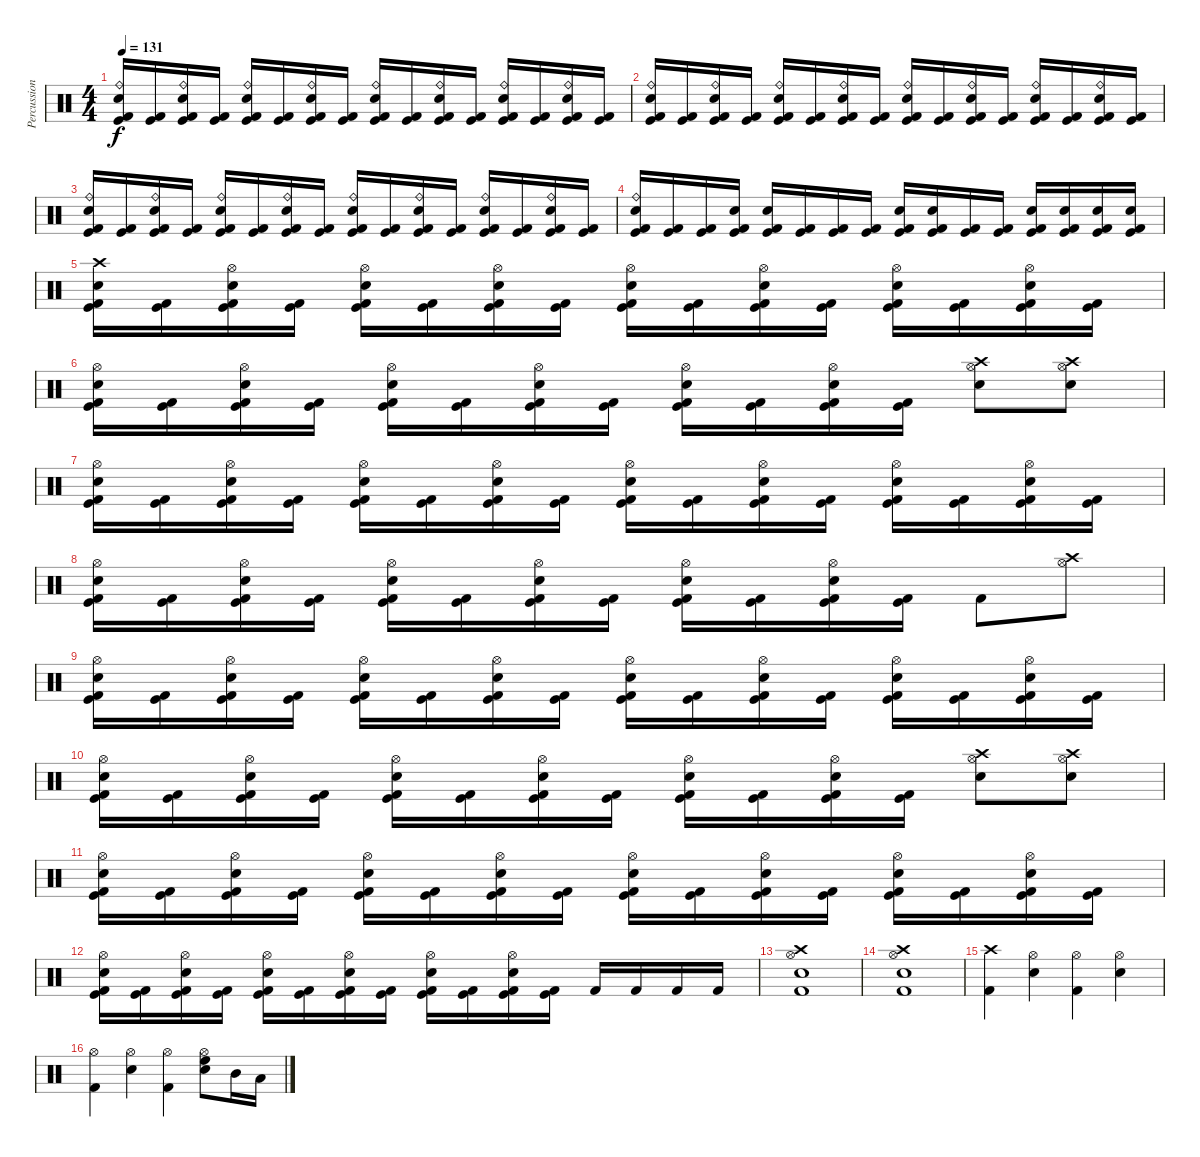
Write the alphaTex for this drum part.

\track ("Percussion" "Percussion") {instrument percussion}
\staff {score}
\articulation defaults
\ts (4 4)
\tempo 131
\clef neutral
\ks c
("Snare (hit) 2" "Ride (bell)" "Kick (hit)" "Kick (hit) 2").16{dy f} ("Kick (hit)" "Kick (hit) 2").16 ("Snare (hit) 2" "Ride (bell)" "Kick (hit)" "Kick (hit) 2").16 ("Kick (hit)" "Kick (hit) 2").16 ("Snare (hit) 2" "Ride (bell)" "Kick (hit)" "Kick (hit) 2").16 ("Kick (hit)" "Kick (hit) 2").16 ("Snare (hit) 2" "Ride (bell)" "Kick (hit)" "Kick (hit) 2").16 ("Kick (hit)" "Kick (hit) 2").16 ("Snare (hit) 2" "Ride (bell)" "Kick (hit)" "Kick (hit) 2").16 ("Kick (hit)" "Kick (hit) 2").16 ("Snare (hit) 2" "Ride (bell)" "Kick (hit)" "Kick (hit) 2").16 ("Kick (hit)" "Kick (hit) 2").16 ("Snare (hit) 2" "Ride (bell)" "Kick (hit)" "Kick (hit) 2").16 ("Kick (hit)" "Kick (hit) 2").16 ("Snare (hit) 2" "Ride (bell)" "Kick (hit)" "Kick (hit) 2").16 ("Kick (hit)" "Kick (hit) 2").16 |
("Snare (hit) 2" "Ride (bell)" "Kick (hit)" "Kick (hit) 2").16 ("Kick (hit)" "Kick (hit) 2").16 ("Snare (hit) 2" "Ride (bell)" "Kick (hit)" "Kick (hit) 2").16 ("Kick (hit)" "Kick (hit) 2").16 ("Snare (hit) 2" "Ride (bell)" "Kick (hit)" "Kick (hit) 2").16 ("Kick (hit)" "Kick (hit) 2").16 ("Snare (hit) 2" "Ride (bell)" "Kick (hit)" "Kick (hit) 2").16 ("Kick (hit)" "Kick (hit) 2").16 ("Snare (hit) 2" "Ride (bell)" "Kick (hit)" "Kick (hit) 2").16 ("Kick (hit)" "Kick (hit) 2").16 ("Snare (hit) 2" "Ride (bell)" "Kick (hit)" "Kick (hit) 2").16 ("Kick (hit)" "Kick (hit) 2").16 ("Snare (hit) 2" "Ride (bell)" "Kick (hit)" "Kick (hit) 2").16 ("Kick (hit)" "Kick (hit) 2").16 ("Snare (hit) 2" "Ride (bell)" "Kick (hit)" "Kick (hit) 2").16 ("Kick (hit)" "Kick (hit) 2").16 |
("Snare (hit) 2" "Ride (bell)" "Kick (hit)" "Kick (hit) 2").16 ("Kick (hit)" "Kick (hit) 2").16 ("Snare (hit) 2" "Ride (bell)" "Kick (hit)" "Kick (hit) 2").16 ("Kick (hit)" "Kick (hit) 2").16 ("Snare (hit) 2" "Ride (bell)" "Kick (hit)" "Kick (hit) 2").16 ("Kick (hit)" "Kick (hit) 2").16 ("Snare (hit) 2" "Ride (bell)" "Kick (hit)" "Kick (hit) 2").16 ("Kick (hit)" "Kick (hit) 2").16 ("Snare (hit) 2" "Ride (bell)" "Kick (hit)" "Kick (hit) 2").16 ("Kick (hit)" "Kick (hit) 2").16 ("Snare (hit) 2" "Ride (bell)" "Kick (hit)" "Kick (hit) 2").16 ("Kick (hit)" "Kick (hit) 2").16 ("Snare (hit) 2" "Ride (bell)" "Kick (hit)" "Kick (hit) 2").16 ("Kick (hit)" "Kick (hit) 2").16 ("Snare (hit) 2" "Ride (bell)" "Kick (hit)" "Kick (hit) 2").16 ("Kick (hit)" "Kick (hit) 2").16 |
("Snare (hit) 2" "Ride (bell)" "Kick (hit)" "Kick (hit) 2").16 ("Kick (hit)" "Kick (hit) 2").16 ("Kick (hit)" "Kick (hit) 2").16 ("Snare (hit) 2" "Kick (hit)" "Kick (hit) 2").16 ("Snare (hit) 2" "Kick (hit)" "Kick (hit) 2").16 ("Kick (hit)" "Kick (hit) 2").16 ("Kick (hit)" "Kick (hit) 2").16 ("Kick (hit)" "Kick (hit) 2").16 ("Snare (hit) 2" "Kick (hit)" "Kick (hit) 2").16 ("Snare (hit) 2" "Kick (hit)" "Kick (hit) 2").16 ("Kick (hit)" "Kick (hit) 2").16 ("Kick (hit)" "Kick (hit) 2").16 ("Snare (hit) 2" "Kick (hit)" "Kick (hit) 2").16 ("Snare (hit) 2" "Kick (hit)" "Kick (hit) 2").16 ("Snare (hit) 2" "Kick (hit)" "Kick (hit) 2").16 ("Snare (hit) 2" "Kick (hit)" "Kick (hit) 2").16 |
("Snare (hit) 2" "Crash high (hit)" "Kick (hit)" "Kick (hit) 2").16 ("Kick (hit)" "Kick (hit) 2").16 ("Snare (hit) 2" "Hi-Hat (open)" "Kick (hit)" "Kick (hit) 2").16 ("Kick (hit)" "Kick (hit) 2").16 ("Snare (hit) 2" "Hi-Hat (open)" "Kick (hit)" "Kick (hit) 2").16 ("Kick (hit)" "Kick (hit) 2").16 ("Snare (hit) 2" "Hi-Hat (open)" "Kick (hit)" "Kick (hit) 2").16 ("Kick (hit)" "Kick (hit) 2").16 ("Snare (hit) 2" "Hi-Hat (open)" "Kick (hit)" "Kick (hit) 2").16 ("Kick (hit)" "Kick (hit) 2").16 ("Snare (hit) 2" "Hi-Hat (open)" "Kick (hit)" "Kick (hit) 2").16 ("Kick (hit)" "Kick (hit) 2").16 ("Snare (hit) 2" "Hi-Hat (open)" "Kick (hit)" "Kick (hit) 2").16 ("Kick (hit)" "Kick (hit) 2").16 ("Snare (hit) 2" "Hi-Hat (open)" "Kick (hit)" "Kick (hit) 2").16 ("Kick (hit)" "Kick (hit) 2").16 |
("Snare (hit) 2" "Hi-Hat (open)" "Kick (hit)" "Kick (hit) 2").16 ("Kick (hit)" "Kick (hit) 2").16 ("Snare (hit) 2" "Hi-Hat (open)" "Kick (hit)" "Kick (hit) 2").16 ("Kick (hit)" "Kick (hit) 2").16 ("Snare (hit) 2" "Hi-Hat (open)" "Kick (hit)" "Kick (hit) 2").16 ("Kick (hit)" "Kick (hit) 2").16 ("Snare (hit) 2" "Hi-Hat (open)" "Kick (hit)" "Kick (hit) 2").16 ("Kick (hit)" "Kick (hit) 2").16 ("Snare (hit) 2" "Hi-Hat (open)" "Kick (hit)" "Kick (hit) 2").16 ("Kick (hit)" "Kick (hit) 2").16 ("Snare (hit) 2" "Hi-Hat (open)" "Kick (hit)" "Kick (hit) 2").16 ("Kick (hit)" "Kick (hit) 2").16 ("Hi-Hat (open)" "Crash high (hit)" "Snare (hit) 2").8 ("Hi-Hat (open)" "Crash high (hit)" "Snare (hit) 2").8 |
("Snare (hit) 2" "Hi-Hat (open)" "Kick (hit)" "Kick (hit) 2").16 ("Kick (hit)" "Kick (hit) 2").16 ("Snare (hit) 2" "Hi-Hat (open)" "Kick (hit)" "Kick (hit) 2").16 ("Kick (hit)" "Kick (hit) 2").16 ("Snare (hit) 2" "Hi-Hat (open)" "Kick (hit)" "Kick (hit) 2").16 ("Kick (hit)" "Kick (hit) 2").16 ("Snare (hit) 2" "Hi-Hat (open)" "Kick (hit)" "Kick (hit) 2").16 ("Kick (hit)" "Kick (hit) 2").16 ("Snare (hit) 2" "Hi-Hat (open)" "Kick (hit)" "Kick (hit) 2").16 ("Kick (hit)" "Kick (hit) 2").16 ("Snare (hit) 2" "Hi-Hat (open)" "Kick (hit)" "Kick (hit) 2").16 ("Kick (hit)" "Kick (hit) 2").16 ("Snare (hit) 2" "Hi-Hat (open)" "Kick (hit)" "Kick (hit) 2").16 ("Kick (hit)" "Kick (hit) 2").16 ("Snare (hit) 2" "Hi-Hat (open)" "Kick (hit)" "Kick (hit) 2").16 ("Kick (hit)" "Kick (hit) 2").16 |
("Snare (hit) 2" "Hi-Hat (open)" "Kick (hit)" "Kick (hit) 2").16 ("Kick (hit)" "Kick (hit) 2").16 ("Snare (hit) 2" "Hi-Hat (open)" "Kick (hit)" "Kick (hit) 2").16 ("Kick (hit)" "Kick (hit) 2").16 ("Snare (hit) 2" "Hi-Hat (open)" "Kick (hit)" "Kick (hit) 2").16 ("Kick (hit)" "Kick (hit) 2").16 ("Snare (hit) 2" "Hi-Hat (open)" "Kick (hit)" "Kick (hit) 2").16 ("Kick (hit)" "Kick (hit) 2").16 ("Snare (hit) 2" "Hi-Hat (open)" "Kick (hit)" "Kick (hit) 2").16 ("Kick (hit)" "Kick (hit) 2").16 ("Snare (hit) 2" "Hi-Hat (open)" "Kick (hit)" "Kick (hit) 2").16 ("Kick (hit)" "Kick (hit) 2").16 "Kick (hit) 2".8 ("Hi-Hat (open)" "Crash high (hit)").8 |
("Snare (hit) 2" "Hi-Hat (open)" "Kick (hit)" "Kick (hit) 2").16 ("Kick (hit)" "Kick (hit) 2").16 ("Snare (hit) 2" "Hi-Hat (open)" "Kick (hit)" "Kick (hit) 2").16 ("Kick (hit)" "Kick (hit) 2").16 ("Snare (hit) 2" "Hi-Hat (open)" "Kick (hit)" "Kick (hit) 2").16 ("Kick (hit)" "Kick (hit) 2").16 ("Snare (hit) 2" "Hi-Hat (open)" "Kick (hit)" "Kick (hit) 2").16 ("Kick (hit)" "Kick (hit) 2").16 ("Snare (hit) 2" "Hi-Hat (open)" "Kick (hit)" "Kick (hit) 2").16 ("Kick (hit)" "Kick (hit) 2").16 ("Snare (hit) 2" "Hi-Hat (open)" "Kick (hit)" "Kick (hit) 2").16 ("Kick (hit)" "Kick (hit) 2").16 ("Snare (hit) 2" "Hi-Hat (open)" "Kick (hit)" "Kick (hit) 2").16 ("Kick (hit)" "Kick (hit) 2").16 ("Snare (hit) 2" "Hi-Hat (open)" "Kick (hit)" "Kick (hit) 2").16 ("Kick (hit)" "Kick (hit) 2").16 |
("Snare (hit) 2" "Hi-Hat (open)" "Kick (hit)" "Kick (hit) 2").16 ("Kick (hit)" "Kick (hit) 2").16 ("Snare (hit) 2" "Hi-Hat (open)" "Kick (hit)" "Kick (hit) 2").16 ("Kick (hit)" "Kick (hit) 2").16 ("Snare (hit) 2" "Hi-Hat (open)" "Kick (hit)" "Kick (hit) 2").16 ("Kick (hit)" "Kick (hit) 2").16 ("Snare (hit) 2" "Hi-Hat (open)" "Kick (hit)" "Kick (hit) 2").16 ("Kick (hit)" "Kick (hit) 2").16 ("Snare (hit) 2" "Hi-Hat (open)" "Kick (hit)" "Kick (hit) 2").16 ("Kick (hit)" "Kick (hit) 2").16 ("Snare (hit) 2" "Hi-Hat (open)" "Kick (hit)" "Kick (hit) 2").16 ("Kick (hit)" "Kick (hit) 2").16 ("Hi-Hat (open)" "Crash high (hit)" "Snare (hit) 2").8 ("Hi-Hat (open)" "Crash high (hit)" "Snare (hit) 2").8 |
("Snare (hit) 2" "Hi-Hat (open)" "Kick (hit)" "Kick (hit) 2").16 ("Kick (hit)" "Kick (hit) 2").16 ("Snare (hit) 2" "Hi-Hat (open)" "Kick (hit)" "Kick (hit) 2").16 ("Kick (hit)" "Kick (hit) 2").16 ("Snare (hit) 2" "Hi-Hat (open)" "Kick (hit)" "Kick (hit) 2").16 ("Kick (hit)" "Kick (hit) 2").16 ("Snare (hit) 2" "Hi-Hat (open)" "Kick (hit)" "Kick (hit) 2").16 ("Kick (hit)" "Kick (hit) 2").16 ("Snare (hit) 2" "Hi-Hat (open)" "Kick (hit)" "Kick (hit) 2").16 ("Kick (hit)" "Kick (hit) 2").16 ("Snare (hit) 2" "Hi-Hat (open)" "Kick (hit)" "Kick (hit) 2").16 ("Kick (hit)" "Kick (hit) 2").16 ("Snare (hit) 2" "Hi-Hat (open)" "Kick (hit)" "Kick (hit) 2").16 ("Kick (hit)" "Kick (hit) 2").16 ("Snare (hit) 2" "Hi-Hat (open)" "Kick (hit)" "Kick (hit) 2").16 ("Kick (hit)" "Kick (hit) 2").16 |
("Snare (hit) 2" "Hi-Hat (open)" "Kick (hit)" "Kick (hit) 2").16 ("Kick (hit)" "Kick (hit) 2").16 ("Snare (hit) 2" "Hi-Hat (open)" "Kick (hit)" "Kick (hit) 2").16 ("Kick (hit)" "Kick (hit) 2").16 ("Snare (hit) 2" "Hi-Hat (open)" "Kick (hit)" "Kick (hit) 2").16 ("Kick (hit)" "Kick (hit) 2").16 ("Snare (hit) 2" "Hi-Hat (open)" "Kick (hit)" "Kick (hit) 2").16 ("Kick (hit)" "Kick (hit) 2").16 ("Snare (hit) 2" "Hi-Hat (open)" "Kick (hit)" "Kick (hit) 2").16 ("Kick (hit)" "Kick (hit) 2").16 ("Snare (hit) 2" "Hi-Hat (open)" "Kick (hit)" "Kick (hit) 2").16 ("Kick (hit)" "Kick (hit) 2").16 "Kick (hit) 2".16 "Kick (hit) 2".16 "Kick (hit) 2".16 "Kick (hit) 2".16 |
("Crash high (hit)" "Hi-Hat (open)" "Snare (hit) 2" "Kick (hit) 2").1 |
("Crash high (hit)" "Hi-Hat (open)" "Snare (hit) 2" "Kick (hit) 2").1 |
("Crash high (hit)" "Kick (hit) 2").4 ("Hi-Hat (open)" "Snare (hit) 2").4 ("Hi-Hat (open)" "Kick (hit) 2").4 ("Hi-Hat (open)" "Snare (hit) 2").4 |
("Hi-Hat (open)" "Kick (hit) 2").4 ("Hi-Hat (open)" "Snare (hit) 2").4 ("Hi-Hat (open)" "Kick (hit) 2").4 ("Hi-Hat (open)" "High Floor Tom (hit)" "Snare (hit) 2").8 "Mid Tom (hit)".16 "Low Tom (hit)".16
